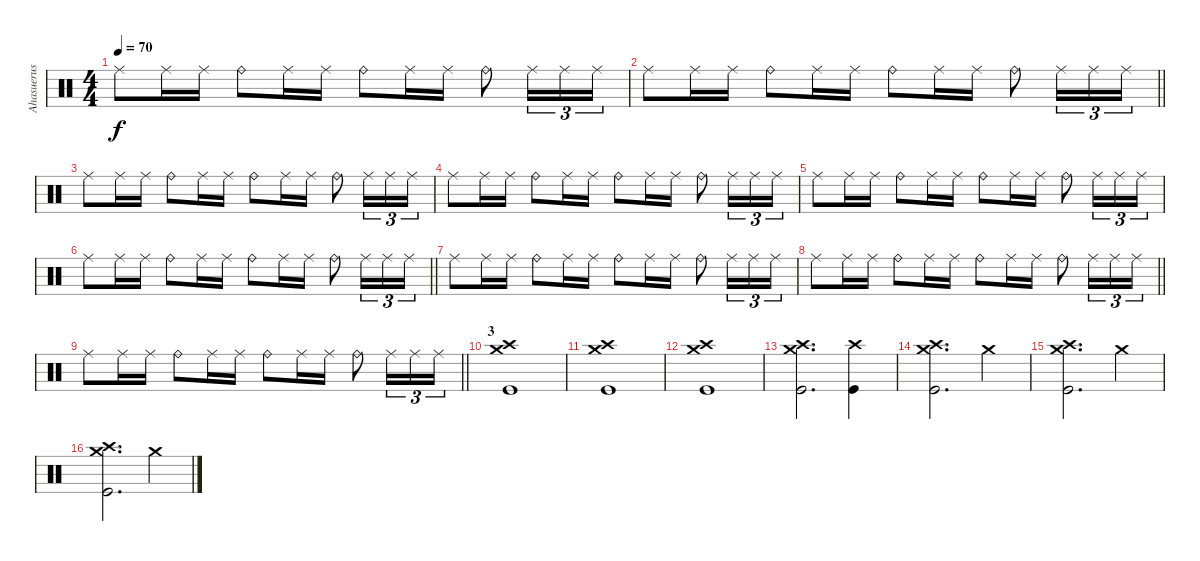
\track ("Ahasuerus" "Ahasuerus") {instrument percussion}
\staff {score}
\articulation defaults
\ts (4 4)
\tempo 70
\clef neutral
\ks c "Ride (middle)".8{dy f} "Ride (middle)".16 "Ride (middle)".16 "Ride (bell)".8 "Ride (middle)".16 "Ride (middle)".16 "Ride (bell)".8 "Ride (middle)".16 "Ride (middle)".16 "Ride (bell)".8 "Ride (middle)".16{tu (3 2)} "Ride (middle)".16{tu (3 2)} "Ride (middle)".16{tu (3 2)}
|
\barLineRight lightlight "Ride (middle)".8 "Ride (middle)".16 "Ride (middle)".16 "Ride (bell)".8 "Ride (middle)".16 "Ride (middle)".16 "Ride (bell)".8 "Ride (middle)".16 "Ride (middle)".16 "Ride (bell)".8 "Ride (middle)".16{tu (3 2)} "Ride (middle)".16{tu (3 2)} "Ride (middle)".16{tu (3 2)}
|
"Ride (middle)".8 "Ride (middle)".16 "Ride (middle)".16 "Ride (bell)".8 "Ride (middle)".16 "Ride (middle)".16 "Ride (bell)".8 "Ride (middle)".16 "Ride (middle)".16 "Ride (bell)".8 "Ride (middle)".16{tu (3 2)} "Ride (middle)".16{tu (3 2)} "Ride (middle)".16{tu (3 2)} |
"Ride (middle)".8 "Ride (middle)".16 "Ride (middle)".16 "Ride (bell)".8 "Ride (middle)".16 "Ride (middle)".16 "Ride (bell)".8 "Ride (middle)".16 "Ride (middle)".16 "Ride (bell)".8 "Ride (middle)".16{tu (3 2)} "Ride (middle)".16{tu (3 2)} "Ride (middle)".16{tu (3 2)} |
"Ride (middle)".8 "Ride (middle)".16 "Ride (middle)".16 "Ride (bell)".8 "Ride (middle)".16 "Ride (middle)".16 "Ride (bell)".8 "Ride (middle)".16 "Ride (middle)".16 "Ride (bell)".8 "Ride (middle)".16{tu (3 2)} "Ride (middle)".16{tu (3 2)} "Ride (middle)".16{tu (3 2)} |
\barLineRight lightlight "Ride (middle)".8 "Ride (middle)".16 "Ride (middle)".16 "Ride (bell)".8 "Ride (middle)".16 "Ride (middle)".16 "Ride (bell)".8 "Ride (middle)".16 "Ride (middle)".16 "Ride (bell)".8 "Ride (middle)".16{tu (3 2)} "Ride (middle)".16{tu (3 2)} "Ride (middle)".16{tu (3 2)}
|
"Ride (middle)".8 "Ride (middle)".16 "Ride (middle)".16 "Ride (bell)".8 "Ride (middle)".16 "Ride (middle)".16 "Ride (bell)".8 "Ride (middle)".16 "Ride (middle)".16 "Ride (bell)".8 "Ride (middle)".16{tu (3 2)} "Ride (middle)".16{tu (3 2)} "Ride (middle)".16{tu (3 2)} |
\barLineRight lightlight "Ride (middle)".8 "Ride (middle)".16 "Ride (middle)".16 "Ride (bell)".8 "Ride (middle)".16 "Ride (middle)".16 "Ride (bell)".8 "Ride (middle)".16 "Ride (middle)".16 "Ride (bell)".8 "Ride (middle)".16{tu (3 2)} "Ride (middle)".16{tu (3 2)} "Ride (middle)".16{tu (3 2)}
|
\barLineRight lightlight "Ride (middle)".8 "Ride (middle)".16 "Ride (middle)".16 "Ride (bell)".8 "Ride (middle)".16 "Ride (middle)".16 "Ride (bell)".8 "Ride (middle)".16 "Ride (middle)".16 "Ride (bell)".8 "Ride (middle)".16{tu (3 2)} "Ride (middle)".16{tu (3 2)} "Ride (middle)".16{tu (3 2)}
|
\section ("" "3")
("Crash medium (hit)" "Crash high (hit)" "Kick (hit)").1 |
("Crash medium (hit)" "Crash high (hit)" "Kick (hit)").1 |
("Crash medium (hit)" "Crash high (hit)" "Kick (hit)").1 |
("Crash medium (hit)" "Crash high (hit)" "Kick (hit)").2{d} ("Crash high (hit)" "Kick (hit)").4 |
("Crash medium (hit)" "Crash high (hit)" "Kick (hit)").2{d} "Crash medium (hit)".4 |
("Crash medium (hit)" "Crash high (hit)" "Kick (hit)").2{d} "Crash medium (hit)".4 |
("Crash medium (hit)" "Crash high (hit)" "Kick (hit)").2{d} "Crash medium (hit)".4
